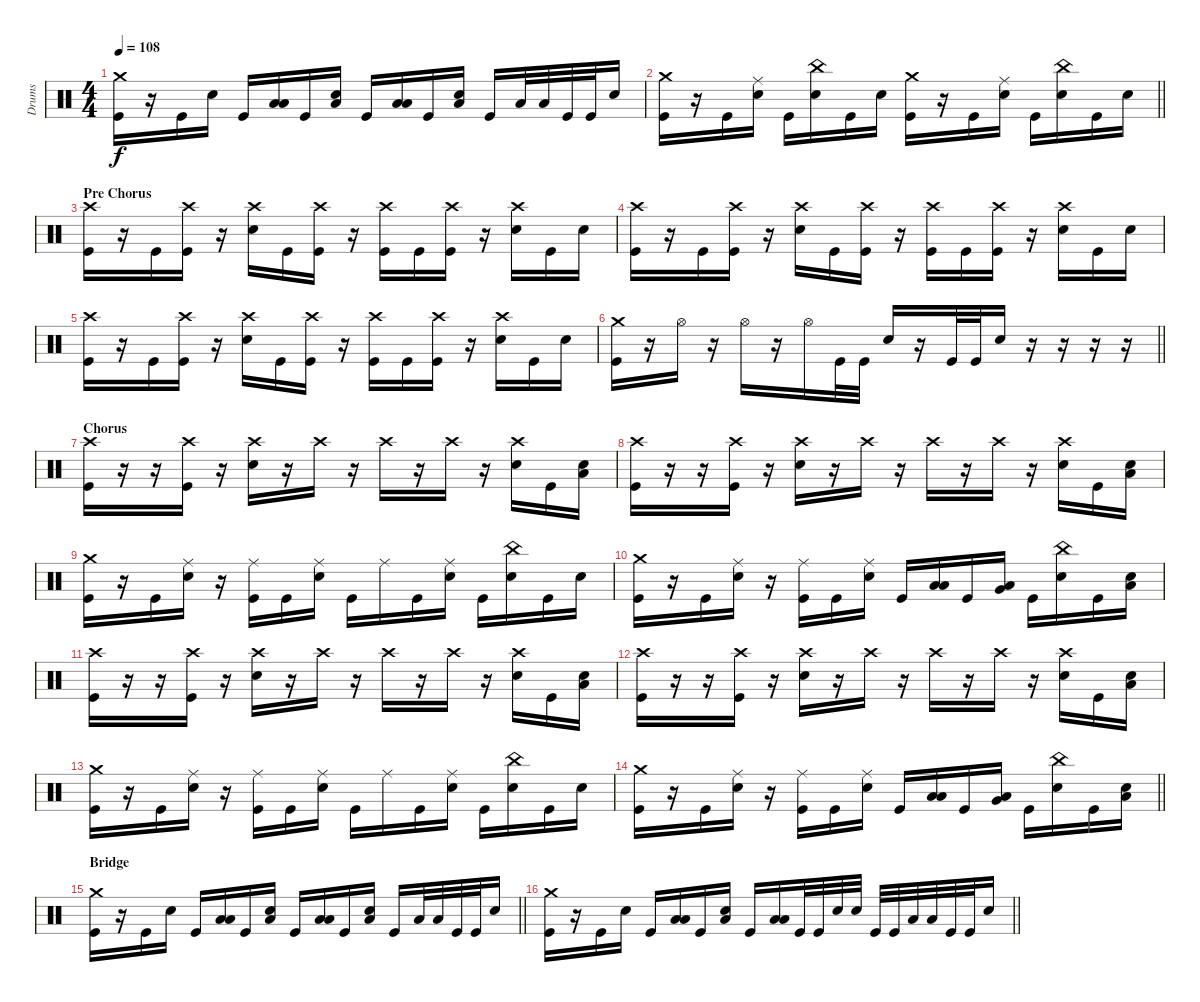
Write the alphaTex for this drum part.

\track ("Drums" "Drums") {instrument percussion}
\staff {score}
\articulation defaults
\ts (4 4)
\tempo 108
\clef neutral
\ks c
("Crash medium (hit)" "Kick (hit)").16{dy f} r.16 "Kick (hit)".16 "Snare (hit) 2".16 "Kick (hit)".16 ("Low Tom (hit)" "Low Floor Tom (hit)").16 "Kick (hit)".16 ("Snare (hit) 2" "Low Floor Tom (hit)").16 "Kick (hit)".16 ("Low Tom (hit)" "Low Floor Tom (hit)").16 "Kick (hit)".16 ("Snare (hit) 2" "Low Floor Tom (hit)").16 "Kick (hit)".16 "Low Tom (hit)".32 "Low Floor Tom (hit)".32 "Kick (hit)".32 "Kick (hit)".32 "Snare (hit) 2".16 |
\barLineRight lightlight
("Crash medium (hit)" "Kick (hit)").16 r.16 "Kick (hit)".16 ("Ride (middle)" "Snare (hit) 2").16 "Kick (hit)".16 ("China (hit)" "Snare (hit) 2").16 "Kick (hit)".16 "Snare (hit) 2".16 ("Crash medium (hit)" "Kick (hit)").16 r.16 "Kick (hit)".16 ("Ride (middle)" "Snare (hit) 2").16 "Kick (hit)".16 ("China (hit)" "Snare (hit) 2").16 "Kick (hit)".16 "Snare (hit) 2".16 |
\section ("" "Pre Chorus")
("Crash high (hit)" "Kick (hit)").16 r.16 "Kick (hit)".16 ("Crash high (hit)" "Kick (hit)").16 r.16 ("Crash high (hit)" "Snare (hit) 2").16 "Kick (hit)".16 ("Crash high (hit)" "Kick (hit)").16 r.16 ("Crash high (hit)" "Kick (hit)").16 "Kick (hit)".16 ("Crash high (hit)" "Kick (hit)").16 r.16 ("Crash high (hit)" "Snare (hit) 2").16 "Kick (hit)".16 "Snare (hit) 2".16 |
("Crash high (hit)" "Kick (hit)").16 r.16 "Kick (hit)".16 ("Crash high (hit)" "Kick (hit)").16 r.16 ("Crash high (hit)" "Snare (hit) 2").16 "Kick (hit)".16 ("Crash high (hit)" "Kick (hit)").16 r.16 ("Crash high (hit)" "Kick (hit)").16 "Kick (hit)".16 ("Crash high (hit)" "Kick (hit)").16 r.16 ("Crash high (hit)" "Snare (hit) 2").16 "Kick (hit)".16 "Snare (hit) 2".16 |
("Crash high (hit)" "Kick (hit)").16 r.16 "Kick (hit)".16 ("Crash high (hit)" "Kick (hit)").16 r.16 ("Crash high (hit)" "Snare (hit) 2").16 "Kick (hit)".16 ("Crash high (hit)" "Kick (hit)").16 r.16 ("Crash high (hit)" "Kick (hit)").16 "Kick (hit)".16 ("Crash high (hit)" "Kick (hit)").16 r.16 ("Crash high (hit)" "Snare (hit) 2").16 "Kick (hit)".16 "Snare (hit) 2".16 |
\barLineRight lightlight
("Crash medium (hit)" "Kick (hit)").16 r.16 "Hi-Hat (open)".16 r.16 "Hi-Hat (open)".16 r.16 "Hi-Hat (open)".16 "Kick (hit)".32 "Kick (hit)".32 "Snare (hit) 2".16 r.16 "Kick (hit)".32 "Kick (hit)".32 "Snare (hit) 2".16 r.16 r.16 r.16 r.16 |
\section ("" "Chorus")
("Crash high (hit)" "Kick (hit)").16 r.16 r.16 ("Crash high (hit)" "Kick (hit)").16 r.16 ("Crash high (hit)" "Snare (hit) 2").16 r.16 "Crash high (hit)".16 r.16 "Crash high (hit)".16 r.16 "Crash high (hit)".16 r.16 ("Crash high (hit)" "Snare (hit) 2").16 "Kick (hit)".16 ("Snare (hit) 2" "Low Floor Tom (hit)").16 |
("Crash high (hit)" "Kick (hit)").16 r.16 r.16 ("Crash high (hit)" "Kick (hit)").16 r.16 ("Crash high (hit)" "Snare (hit) 2").16 r.16 "Crash high (hit)".16 r.16 "Crash high (hit)".16 r.16 "Crash high (hit)".16 r.16 ("Crash high (hit)" "Snare (hit) 2").16 "Kick (hit)".16 ("Snare (hit) 2" "Low Floor Tom (hit)").16 |
("Crash medium (hit)" "Kick (hit)").16 r.16 "Kick (hit)".16 ("Ride (middle)" "Snare (hit) 2").16 r.16 ("Ride (middle)" "Kick (hit)").16 "Kick (hit)".16 ("Ride (middle)" "Snare (hit) 2").16 "Kick (hit)".16 "Ride (middle)".16 "Kick (hit)".16 ("Ride (middle)" "Snare (hit) 2").16 "Kick (hit)".16 ("China (hit)" "Snare (hit) 2").16 "Kick (hit)".16 "Snare (hit) 2".16 |
("Crash medium (hit)" "Kick (hit)").16 r.16 "Kick (hit)".16 ("Ride (middle)" "Snare (hit) 2").16 r.16 ("Ride (middle)" "Kick (hit)").16 "Kick (hit)".16 ("Ride (middle)" "Snare (hit) 2").16 "Kick (hit)".16 ("Low Tom (hit)" "Low Floor Tom (hit)").16 "Kick (hit)".16 ("Very Low Tom (hit)" "Low Floor Tom (hit)").16 "Kick (hit)".16 ("China (hit)" "Snare (hit) 2").16 "Kick (hit)".16 ("Snare (hit) 2" "Low Floor Tom (hit)").16 |
("Crash high (hit)" "Kick (hit)").16 r.16 r.16 ("Crash high (hit)" "Kick (hit)").16 r.16 ("Crash high (hit)" "Snare (hit) 2").16 r.16 "Crash high (hit)".16 r.16 "Crash high (hit)".16 r.16 "Crash high (hit)".16 r.16 ("Crash high (hit)" "Snare (hit) 2").16 "Kick (hit)".16 ("Snare (hit) 2" "Low Floor Tom (hit)").16 |
("Crash high (hit)" "Kick (hit)").16 r.16 r.16 ("Crash high (hit)" "Kick (hit)").16 r.16 ("Crash high (hit)" "Snare (hit) 2").16 r.16 "Crash high (hit)".16 r.16 "Crash high (hit)".16 r.16 "Crash high (hit)".16 r.16 ("Crash high (hit)" "Snare (hit) 2").16 "Kick (hit)".16 ("Snare (hit) 2" "Low Floor Tom (hit)").16 |
("Crash medium (hit)" "Kick (hit)").16 r.16 "Kick (hit)".16 ("Ride (middle)" "Snare (hit) 2").16 r.16 ("Ride (middle)" "Kick (hit)").16 "Kick (hit)".16 ("Ride (middle)" "Snare (hit) 2").16 "Kick (hit)".16 "Ride (middle)".16 "Kick (hit)".16 ("Ride (middle)" "Snare (hit) 2").16 "Kick (hit)".16 ("China (hit)" "Snare (hit) 2").16 "Kick (hit)".16 "Snare (hit) 2".16 |
\barLineRight lightlight
("Crash medium (hit)" "Kick (hit)").16 r.16 "Kick (hit)".16 ("Ride (middle)" "Snare (hit) 2").16 r.16 ("Ride (middle)" "Kick (hit)").16 "Kick (hit)".16 ("Ride (middle)" "Snare (hit) 2").16 "Kick (hit)".16 ("Low Tom (hit)" "Low Floor Tom (hit)").16 "Kick (hit)".16 ("Very Low Tom (hit)" "Low Floor Tom (hit)").16 "Kick (hit)".16 ("China (hit)" "Snare (hit) 2").16 "Kick (hit)".16 ("Snare (hit) 2" "Low Floor Tom (hit)").16 |
\section ("" "Bridge")
\barLineRight lightlight
("Crash medium (hit)" "Kick (hit)").16 r.16 "Kick (hit)".16 "Snare (hit) 2".16 "Kick (hit)".16 ("Low Tom (hit)" "Low Floor Tom (hit)").16 "Kick (hit)".16 ("Snare (hit) 2" "Low Floor Tom (hit)").16 "Kick (hit)".16 ("Low Tom (hit)" "Low Floor Tom (hit)").16 "Kick (hit)".16 ("Snare (hit) 2" "Low Floor Tom (hit)").16 "Kick (hit)".16 "Low Tom (hit)".32 "Low Floor Tom (hit)".32 "Kick (hit)".32 "Kick (hit)".32 "Snare (hit) 2".16 |
\barLineRight lightlight
("Crash medium (hit)" "Kick (hit)").16 r.16 "Kick (hit)".16 "Snare (hit) 2".16 "Kick (hit)".16 ("Low Tom (hit)" "Low Floor Tom (hit)").16 "Kick (hit)".16 ("Snare (hit) 2" "Low Floor Tom (hit)").16 "Kick (hit)".16 ("Low Tom (hit)" "Low Floor Tom (hit)").16 "Kick (hit)".32 "Kick (hit)".32 "Snare (hit) 2".32 "Snare (hit) 2".32 "Kick (hit)".32 "Kick (hit)".32 "Low Tom (hit)".32 "Low Floor Tom (hit)".32 "Kick (hit)".32 "Kick (hit)".32 "Snare (hit) 2".16
